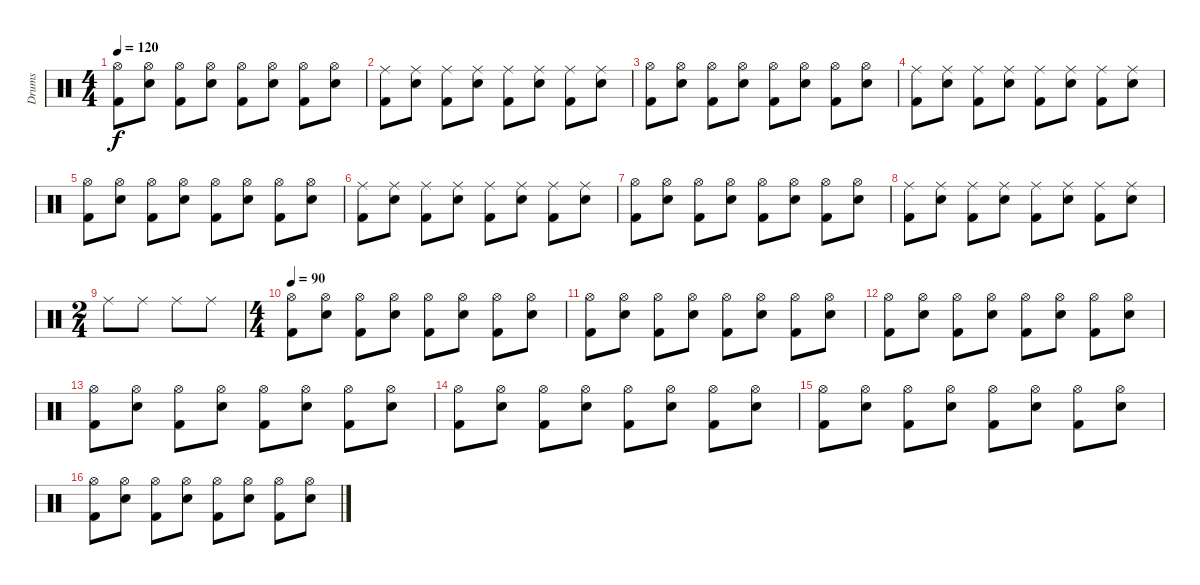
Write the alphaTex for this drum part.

\track ("Drums" "Drums") {instrument percussion}
\staff {score}
\articulation defaults
\ts (4 4)
\tempo 120
\tempo 90
\tempo 120
\clef neutral
\ks c
("Hi-Hat (open)" "Kick (hit) 2").8{dy f} ("Hi-Hat (open)" "Electric Snare (hit)").8 ("Hi-Hat (open)" "Kick (hit) 2").8 ("Hi-Hat (open)" "Electric Snare (hit)").8 ("Hi-Hat (open)" "Kick (hit) 2").8 ("Hi-Hat (open)" "Electric Snare (hit)").8 ("Hi-Hat (open)" "Kick (hit) 2").8 ("Hi-Hat (open)" "Electric Snare (hit)").8 |
("Ride (middle)" "Kick (hit) 2").8 ("Ride (middle)" "Electric Snare (hit)").8 ("Ride (middle)" "Kick (hit) 2").8 ("Ride (middle)" "Electric Snare (hit)").8 ("Ride (middle)" "Kick (hit) 2").8 ("Ride (middle)" "Electric Snare (hit)").8 ("Ride (middle)" "Kick (hit) 2").8 ("Ride (middle)" "Electric Snare (hit)").8 |
("Hi-Hat (open)" "Kick (hit) 2").8 ("Hi-Hat (open)" "Electric Snare (hit)").8 ("Hi-Hat (open)" "Kick (hit) 2").8 ("Hi-Hat (open)" "Electric Snare (hit)").8 ("Hi-Hat (open)" "Kick (hit) 2").8 ("Hi-Hat (open)" "Electric Snare (hit)").8 ("Hi-Hat (open)" "Kick (hit) 2").8 ("Hi-Hat (open)" "Electric Snare (hit)").8 |
("Ride (middle)" "Kick (hit) 2").8 ("Ride (middle)" "Electric Snare (hit)").8 ("Ride (middle)" "Kick (hit) 2").8 ("Ride (middle)" "Electric Snare (hit)").8 ("Ride (middle)" "Kick (hit) 2").8 ("Ride (middle)" "Electric Snare (hit)").8 ("Ride (middle)" "Kick (hit) 2").8 ("Ride (middle)" "Electric Snare (hit)").8 |
("Hi-Hat (open)" "Kick (hit) 2").8 ("Hi-Hat (open)" "Electric Snare (hit)").8 ("Hi-Hat (open)" "Kick (hit) 2").8 ("Hi-Hat (open)" "Electric Snare (hit)").8 ("Hi-Hat (open)" "Kick (hit) 2").8 ("Hi-Hat (open)" "Electric Snare (hit)").8 ("Hi-Hat (open)" "Kick (hit) 2").8 ("Hi-Hat (open)" "Electric Snare (hit)").8 |
("Ride (middle)" "Kick (hit) 2").8 ("Ride (middle)" "Electric Snare (hit)").8 ("Ride (middle)" "Kick (hit) 2").8 ("Ride (middle)" "Electric Snare (hit)").8 ("Ride (middle)" "Kick (hit) 2").8 ("Ride (middle)" "Electric Snare (hit)").8 ("Ride (middle)" "Kick (hit) 2").8 ("Ride (middle)" "Electric Snare (hit)").8 |
("Hi-Hat (open)" "Kick (hit) 2").8 ("Hi-Hat (open)" "Electric Snare (hit)").8 ("Hi-Hat (open)" "Kick (hit) 2").8 ("Hi-Hat (open)" "Electric Snare (hit)").8 ("Hi-Hat (open)" "Kick (hit) 2").8 ("Hi-Hat (open)" "Electric Snare (hit)").8 ("Hi-Hat (open)" "Kick (hit) 2").8 ("Hi-Hat (open)" "Electric Snare (hit)").8 |
("Ride (middle)" "Kick (hit) 2").8 ("Ride (middle)" "Electric Snare (hit)").8 ("Ride (middle)" "Kick (hit) 2").8 ("Ride (middle)" "Electric Snare (hit)").8 ("Ride (middle)" "Kick (hit) 2").8 ("Ride (middle)" "Electric Snare (hit)").8 ("Ride (middle)" "Kick (hit) 2").8 ("Ride (middle)" "Electric Snare (hit)").8 |
\ts (2 4)
"Ride (middle)".8 "Ride (middle)".8 "Ride (middle)".8 "Ride (middle)".8 |
\ts (4 4)
\tempo 90
("Hi-Hat (open)" "Kick (hit) 2").8 ("Hi-Hat (open)" "Electric Snare (hit)").8 ("Hi-Hat (open)" "Kick (hit) 2").8 ("Hi-Hat (open)" "Electric Snare (hit)").8 ("Hi-Hat (open)" "Kick (hit) 2").8 ("Hi-Hat (open)" "Electric Snare (hit)").8 ("Hi-Hat (open)" "Kick (hit) 2").8 ("Hi-Hat (open)" "Electric Snare (hit)").8 |
("Hi-Hat (open)" "Kick (hit) 2").8 ("Hi-Hat (open)" "Electric Snare (hit)").8 ("Hi-Hat (open)" "Kick (hit) 2").8 ("Hi-Hat (open)" "Electric Snare (hit)").8 ("Hi-Hat (open)" "Kick (hit) 2").8 ("Hi-Hat (open)" "Electric Snare (hit)").8 ("Hi-Hat (open)" "Kick (hit) 2").8 ("Hi-Hat (open)" "Electric Snare (hit)").8 |
("Hi-Hat (open)" "Kick (hit) 2").8 ("Hi-Hat (open)" "Electric Snare (hit)").8 ("Hi-Hat (open)" "Kick (hit) 2").8 ("Hi-Hat (open)" "Electric Snare (hit)").8 ("Hi-Hat (open)" "Kick (hit) 2").8 ("Hi-Hat (open)" "Electric Snare (hit)").8 ("Hi-Hat (open)" "Kick (hit) 2").8 ("Hi-Hat (open)" "Electric Snare (hit)").8 |
("Hi-Hat (open)" "Kick (hit) 2").8 ("Hi-Hat (open)" "Electric Snare (hit)").8 ("Hi-Hat (open)" "Kick (hit) 2").8 ("Hi-Hat (open)" "Electric Snare (hit)").8 ("Hi-Hat (open)" "Kick (hit) 2").8 ("Hi-Hat (open)" "Electric Snare (hit)").8 ("Hi-Hat (open)" "Kick (hit) 2").8 ("Hi-Hat (open)" "Electric Snare (hit)").8 |
("Hi-Hat (open)" "Kick (hit) 2").8 ("Hi-Hat (open)" "Electric Snare (hit)").8 ("Hi-Hat (open)" "Kick (hit) 2").8 ("Hi-Hat (open)" "Electric Snare (hit)").8 ("Hi-Hat (open)" "Kick (hit) 2").8 ("Hi-Hat (open)" "Electric Snare (hit)").8 ("Hi-Hat (open)" "Kick (hit) 2").8 ("Hi-Hat (open)" "Electric Snare (hit)").8 |
("Hi-Hat (open)" "Kick (hit) 2").8 ("Hi-Hat (open)" "Electric Snare (hit)").8 ("Hi-Hat (open)" "Kick (hit) 2").8 ("Hi-Hat (open)" "Electric Snare (hit)").8 ("Hi-Hat (open)" "Kick (hit) 2").8 ("Hi-Hat (open)" "Electric Snare (hit)").8 ("Hi-Hat (open)" "Kick (hit) 2").8 ("Hi-Hat (open)" "Electric Snare (hit)").8 |
("Hi-Hat (open)" "Kick (hit) 2").8 ("Hi-Hat (open)" "Electric Snare (hit)").8 ("Hi-Hat (open)" "Kick (hit) 2").8 ("Hi-Hat (open)" "Electric Snare (hit)").8 ("Hi-Hat (open)" "Kick (hit) 2").8 ("Hi-Hat (open)" "Electric Snare (hit)").8 ("Hi-Hat (open)" "Kick (hit) 2").8 ("Hi-Hat (open)" "Electric Snare (hit)").8
